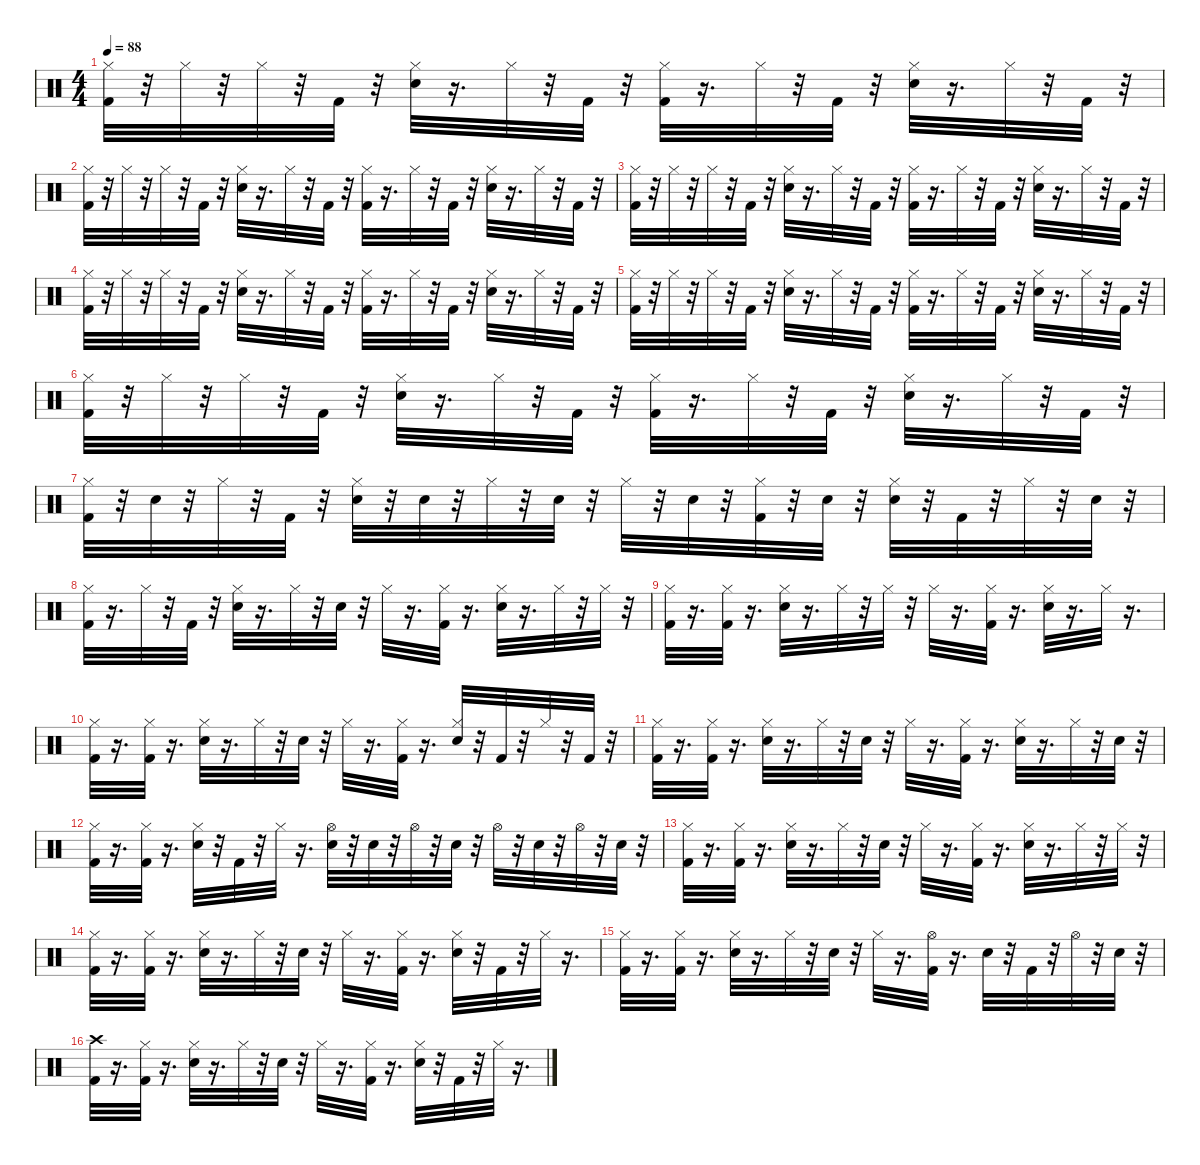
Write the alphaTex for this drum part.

\defaultSystemsLayout 4
\hideDynamics
\bracketExtendMode nobrackets
\singleTrackTrackNamePolicy hidden
\multiTrackTrackNamePolicy hidden
\firstSystemTrackNameMode fullname
\firstSystemTrackNameOrientation horizontal
\otherSystemsTrackNameOrientation horizontal
\track ("Bonzo" "drm.") {instrument percussion}
\staff {score}
\articulation defaults
\ts (4 4)
\tempo 88
\clef neutral
\ks c
("Kick (hit) 2" "Hi-Hat (closed)").32{dy fff beam Down} r.32{beam Down} "Hi-Hat (closed)".32{dy ff beam Down} r.32{beam Down} "Hi-Hat (closed)".32{beam Down} r.32{beam Down} "Kick (hit) 2".32{dy fff beam Down} r.32{beam Down} ("Snare (hit) 2" "Hi-Hat (closed)").32{beam Down} r.16{d beam Down} "Hi-Hat (closed)".32{dy ff beam Down} r.32{beam Down} "Kick (hit) 2".32{dy fff beam Down} r.32{beam Down} ("Kick (hit) 2" "Hi-Hat (closed)").32{beam Down} r.16{d beam Down} "Hi-Hat (closed)".32{dy ff beam Down} r.32{beam Down} "Kick (hit) 2".32{dy fff beam Down} r.32{beam Down} ("Snare (hit) 2" "Hi-Hat (closed)").32{beam Down} r.16{d beam Down} "Hi-Hat (closed)".32{dy ff beam Down} r.32{beam Down} "Kick (hit) 2".32{dy fff beam Down} r.32{beam Down} |
("Kick (hit) 2" "Hi-Hat (closed)").32{beam Down} r.32{beam Down} "Hi-Hat (closed)".32{dy ff beam Down} r.32{beam Down} "Hi-Hat (closed)".32{beam Down} r.32{beam Down} "Kick (hit) 2".32{dy fff beam Down} r.32{beam Down} ("Snare (hit) 2" "Hi-Hat (closed)").32{beam Down} r.16{d beam Down} "Hi-Hat (closed)".32{dy ff beam Down} r.32{beam Down} "Kick (hit) 2".32{dy fff beam Down} r.32{beam Down} ("Kick (hit) 2" "Hi-Hat (closed)").32{beam Down} r.16{d beam Down} "Hi-Hat (closed)".32{dy ff beam Down} r.32{beam Down} "Kick (hit) 2".32{dy fff beam Down} r.32{beam Down} ("Snare (hit) 2" "Hi-Hat (closed)").32{beam Down} r.16{d beam Down} "Hi-Hat (closed)".32{dy ff beam Down} r.32{beam Down} "Kick (hit) 2".32{dy fff beam Down} r.32{beam Down} |
("Kick (hit) 2" "Hi-Hat (closed)").32{beam Down} r.32{beam Down} "Hi-Hat (closed)".32{dy ff beam Down} r.32{beam Down} "Hi-Hat (closed)".32{beam Down} r.32{beam Down} "Kick (hit) 2".32{dy fff beam Down} r.32{beam Down} ("Snare (hit) 2" "Hi-Hat (closed)").32{beam Down} r.16{d beam Down} "Hi-Hat (closed)".32{dy ff beam Down} r.32{beam Down} "Kick (hit) 2".32{dy fff beam Down} r.32{beam Down} ("Kick (hit) 2" "Hi-Hat (closed)").32{beam Down} r.16{d beam Down} "Hi-Hat (closed)".32{dy ff beam Down} r.32{beam Down} "Kick (hit) 2".32{dy fff beam Down} r.32{beam Down} ("Snare (hit) 2" "Hi-Hat (closed)").32{beam Down} r.16{d beam Down} "Hi-Hat (closed)".32{dy ff beam Down} r.32{beam Down} "Kick (hit) 2".32{dy fff beam Down} r.32{beam Down} |
("Kick (hit) 2" "Hi-Hat (closed)").32{beam Down} r.32{beam Down} "Hi-Hat (closed)".32{dy ff beam Down} r.32{beam Down} "Hi-Hat (closed)".32{beam Down} r.32{beam Down} "Kick (hit) 2".32{dy fff beam Down} r.32{beam Down} ("Snare (hit) 2" "Hi-Hat (closed)").32{beam Down} r.16{d beam Down} "Hi-Hat (closed)".32{dy ff beam Down} r.32{beam Down} "Kick (hit) 2".32{dy fff beam Down} r.32{beam Down} ("Kick (hit) 2" "Hi-Hat (closed)").32{beam Down} r.16{d beam Down} "Hi-Hat (closed)".32{dy ff beam Down} r.32{beam Down} "Kick (hit) 2".32{dy fff beam Down} r.32{beam Down} ("Snare (hit) 2" "Hi-Hat (closed)").32{beam Down} r.16{d beam Down} "Hi-Hat (closed)".32{dy ff beam Down} r.32{beam Down} "Kick (hit) 2".32{dy fff beam Down} r.32{beam Down} |
("Kick (hit) 2" "Hi-Hat (closed)").32{beam Down} r.32{beam Down} "Hi-Hat (closed)".32{dy ff beam Down} r.32{beam Down} "Hi-Hat (closed)".32{beam Down} r.32{beam Down} "Kick (hit) 2".32{dy fff beam Down} r.32{beam Down} ("Snare (hit) 2" "Hi-Hat (closed)").32{beam Down} r.16{d beam Down} "Hi-Hat (closed)".32{dy ff beam Down} r.32{beam Down} "Kick (hit) 2".32{dy fff beam Down} r.32{beam Down} ("Kick (hit) 2" "Hi-Hat (closed)").32{beam Down} r.16{d beam Down} "Hi-Hat (closed)".32{dy ff beam Down} r.32{beam Down} "Kick (hit) 2".32{dy fff beam Down} r.32{beam Down} ("Snare (hit) 2" "Hi-Hat (closed)").32{beam Down} r.16{d beam Down} "Hi-Hat (closed)".32{dy ff beam Down} r.32{beam Down} "Kick (hit) 2".32{dy fff beam Down} r.32{beam Down} |
("Kick (hit) 2" "Hi-Hat (closed)").32{beam Down} r.32{beam Down} "Hi-Hat (closed)".32{dy ff beam Down} r.32{beam Down} "Hi-Hat (closed)".32{beam Down} r.32{beam Down} "Kick (hit) 2".32{dy fff beam Down} r.32{beam Down} ("Snare (hit) 2" "Hi-Hat (closed)").32{beam Down} r.16{d beam Down} "Hi-Hat (closed)".32{dy ff beam Down} r.32{beam Down} "Kick (hit) 2".32{dy fff beam Down} r.32{beam Down} ("Kick (hit) 2" "Hi-Hat (closed)").32{beam Down} r.16{d beam Down} "Hi-Hat (closed)".32{dy ff beam Down} r.32{beam Down} "Kick (hit) 2".32{dy fff beam Down} r.32{beam Down} ("Snare (hit) 2" "Hi-Hat (closed)").32{beam Down} r.16{d beam Down} "Hi-Hat (closed)".32{dy ff beam Down} r.32{beam Down} "Kick (hit) 2".32{dy fff beam Down} r.32{beam Down} |
("Kick (hit) 2" "Hi-Hat (closed)").32{beam Down} r.32{beam Down} "Snare (hit) 2".32{beam Down} r.32{beam Down} "Hi-Hat (closed)".32{dy ff beam Down} r.32{beam Down} "Kick (hit) 2".32{dy fff beam Down} r.32{beam Down} ("Snare (hit) 2" "Hi-Hat (closed)").32{beam Down} r.32{beam Down} "Snare (hit) 2".32{beam Down} r.32{beam Down} "Hi-Hat (closed)".32{dy ff beam Down} r.32{beam Down} "Snare (hit) 2".32{dy fff beam Down} r.32{beam Down} "Hi-Hat (closed)".32{dy ff beam Down} r.32{beam Down} "Snare (hit) 2".32{dy fff beam Down} r.32{beam Down} ("Kick (hit) 2" "Hi-Hat (closed)").32{beam Down} r.32{beam Down} "Snare (hit) 2".32{beam Down} r.32{beam Down} ("Snare (hit) 2" "Hi-Hat (closed)").32{beam Down} r.32{beam Down} "Kick (hit) 2".32{beam Down} r.32{beam Down} "Hi-Hat (closed)".32{dy ff beam Down} r.32{beam Down} "Snare (hit) 2".32{dy fff beam Down} r.32{beam Down} |
("Kick (hit) 2" "Hi-Hat (closed)").32{beam Down} r.16{d beam Down} "Hi-Hat (closed)".32{dy ff beam Down} r.32{beam Down} "Kick (hit) 2".32{dy fff beam Down} r.32{beam Down} ("Snare (hit) 2" "Hi-Hat (closed)").32{beam Down} r.16{d beam Down} "Hi-Hat (closed)".32{dy ff beam Down} r.32{beam Down} "Snare (hit) 2".32{dy fff beam Down} r.32{beam Down} "Hi-Hat (closed)".32{dy ff beam Down} r.16{d beam Down} ("Kick (hit) 2" "Hi-Hat (closed)").32{dy fff beam Down} r.16{d beam Down} ("Snare (hit) 2" "Hi-Hat (closed)").32{beam Down} r.16{d beam Down} "Hi-Hat (closed)".32{dy ff beam Down} r.32{beam Down} "Hi-Hat (closed)".32{beam Down} r.32{beam Down} |
("Kick (hit) 2" "Hi-Hat (closed)").32{dy fff beam Down} r.16{d beam Down} ("Kick (hit) 2" "Hi-Hat (closed)").32{beam Down} r.16{d beam Down} ("Snare (hit) 2" "Hi-Hat (closed)").32{beam Down} r.16{d beam Down} "Hi-Hat (closed)".32{dy ff beam Down} r.32{beam Down} "Hi-Hat (closed)".32{beam Down} r.32{beam Down} "Hi-Hat (closed)".32{beam Down} r.16{d beam Down} ("Kick (hit) 2" "Hi-Hat (closed)").32{dy fff beam Down} r.16{d beam Down} ("Snare (hit) 2" "Hi-Hat (closed)").32{beam Down} r.16{d beam Down} "Hi-Hat (closed)".32{dy ff beam Down} r.16{d beam Down} |
("Kick (hit) 2" "Hi-Hat (closed)").32{dy fff beam Down} r.16{d beam Down} ("Kick (hit) 2" "Hi-Hat (closed)").32{beam Down} r.16{d beam Down} ("Snare (hit) 2" "Hi-Hat (closed)").32{beam Down} r.16{d beam Down} "Hi-Hat (closed)".32{dy ff beam Down} r.32{beam Down} "Snare (hit) 2".32{dy fff beam Down} r.32{beam Down} "Hi-Hat (closed)".32{dy ff beam Down} r.16{d beam Down} ("Kick (hit) 2" "Hi-Hat (closed)").32{dy fff beam Down} r.16{d beam Down} ("Snare (hit) 2" "Hi-Hat (closed)").32{beam Up} r.32{beam Up} "Kick (hit) 2".32{beam Up} r.32{beam Up} "Hi-Hat (closed)".32{dy ff beam Up} r.32{beam Up} "Kick (hit) 2".32{dy fff beam Up} r.32{beam Up} |
("Kick (hit) 2" "Hi-Hat (closed)").32{beam Down} r.16{d beam Down} ("Kick (hit) 2" "Hi-Hat (closed)").32{beam Down} r.16{d beam Down} ("Snare (hit) 2" "Hi-Hat (closed)").32{beam Down} r.16{d beam Down} "Hi-Hat (closed)".32{dy ff beam Down} r.32{beam Down} "Snare (hit) 2".32{dy fff beam Down} r.32{beam Down} "Hi-Hat (closed)".32{dy ff beam Down} r.16{d beam Down} ("Kick (hit) 2" "Hi-Hat (closed)").32{dy fff beam Down} r.16{d beam Down} ("Snare (hit) 2" "Hi-Hat (closed)").32{beam Down} r.16{d beam Down} "Hi-Hat (closed)".32{dy ff beam Down} r.32{beam Down} "Snare (hit) 2".32{dy fff beam Down} r.32{beam Down} |
("Kick (hit) 2" "Hi-Hat (closed)").32{beam Down} r.16{d beam Down} ("Kick (hit) 2" "Hi-Hat (closed)").32{beam Down} r.16{d beam Down} ("Snare (hit) 2" "Hi-Hat (closed)").32{beam Down} r.32{beam Down} "Kick (hit) 2".32{beam Down} r.32{beam Down} "Hi-Hat (closed)".32{dy ff beam Down} r.16{d beam Down} ("Snare (hit) 2" "Hi-Hat (open)").32{dy fff beam Down} r.32{beam Down} "Snare (hit) 2".32{beam Down} r.32{beam Down} "Hi-Hat (open)".32{dy ff beam Down} r.32{beam Down} "Snare (hit) 2".32{dy fff beam Down} r.32{beam Down} "Hi-Hat (open)".32{dy ff beam Down} r.32{beam Down} "Snare (hit) 2".32{dy fff beam Down} r.32{beam Down} "Hi-Hat (open)".32{dy ff beam Down} r.32{beam Down} "Snare (hit) 2".32{dy fff beam Down} r.32{beam Down} |
("Kick (hit) 2" "Hi-Hat (closed)").32{beam Down} r.16{d beam Down} ("Kick (hit) 2" "Hi-Hat (closed)").32{beam Down} r.16{d beam Down} ("Snare (hit) 2" "Hi-Hat (closed)").32{beam Down} r.16{d beam Down} "Hi-Hat (closed)".32{dy ff beam Down} r.32{beam Down} "Snare (hit) 2".32{dy fff beam Down} r.32{beam Down} "Hi-Hat (closed)".32{dy ff beam Down} r.16{d beam Down} ("Kick (hit) 2" "Hi-Hat (closed)").32{dy fff beam Down} r.16{d beam Down} ("Snare (hit) 2" "Hi-Hat (closed)").32{beam Down} r.16{d beam Down} "Hi-Hat (closed)".32{dy ff beam Down} r.32{beam Down} "Hi-Hat (closed)".32{beam Down} r.32{beam Down} |
("Kick (hit) 2" "Hi-Hat (closed)").32{dy fff beam Down} r.16{d beam Down} ("Kick (hit) 2" "Hi-Hat (closed)").32{beam Down} r.16{d beam Down} ("Snare (hit) 2" "Hi-Hat (closed)").32{beam Down} r.16{d beam Down} "Hi-Hat (closed)".32{dy ff beam Down} r.32{beam Down} "Snare (hit) 2".32{dy fff beam Down} r.32{beam Down} "Hi-Hat (closed)".32{dy ff beam Down} r.16{d beam Down} ("Kick (hit) 2" "Hi-Hat (closed)").32{dy fff beam Down} r.16{d beam Down} ("Snare (hit) 2" "Hi-Hat (closed)").32{beam Down} r.32{beam Down} "Kick (hit) 2".32{beam Down} r.32{beam Down} "Hi-Hat (closed)".32{dy ff beam Down} r.16{d beam Down} |
("Kick (hit) 2" "Hi-Hat (closed)").32{dy fff beam Down} r.16{d beam Down} ("Kick (hit) 2" "Hi-Hat (closed)").32{beam Down} r.16{d beam Down} ("Snare (hit) 2" "Hi-Hat (closed)").32{beam Down} r.16{d beam Down} "Hi-Hat (closed)".32{dy ff beam Down} r.32{beam Down} "Snare (hit) 2".32{dy fff beam Down} r.32{beam Down} "Hi-Hat (closed)".32{dy ff beam Down} r.16{d beam Down} ("Kick (hit) 2" "Hi-Hat (open)").32{dy fff beam Down} r.16{d beam Down} "Snare (hit) 2".32{beam Down} r.32{beam Down} "Kick (hit) 2".32{beam Down} r.32{beam Down} "Hi-Hat (open)".32{dy ff beam Down} r.32{beam Down} "Snare (hit) 2".32{dy fff beam Down} r.32{beam Down} |
("Kick (hit) 2" "Crash high (hit)").32{beam Down} r.16{d beam Down} ("Kick (hit) 2" "Hi-Hat (closed)").32{beam Down} r.16{d beam Down} ("Snare (hit) 2" "Hi-Hat (closed)").32{beam Down} r.16{d beam Down} "Hi-Hat (closed)".32{dy ff beam Down} r.32{beam Down} "Snare (hit) 2".32{dy fff beam Down} r.32{beam Down} "Hi-Hat (closed)".32{dy ff beam Down} r.16{d beam Down} ("Kick (hit) 2" "Hi-Hat (closed)").32{dy fff beam Down} r.16{d beam Down} ("Snare (hit) 2" "Hi-Hat (closed)").32{beam Down} r.32{beam Down} "Kick (hit) 2".32{beam Down} r.32{beam Down} "Hi-Hat (closed)".32{dy ff beam Down} r.16{d beam Down}
